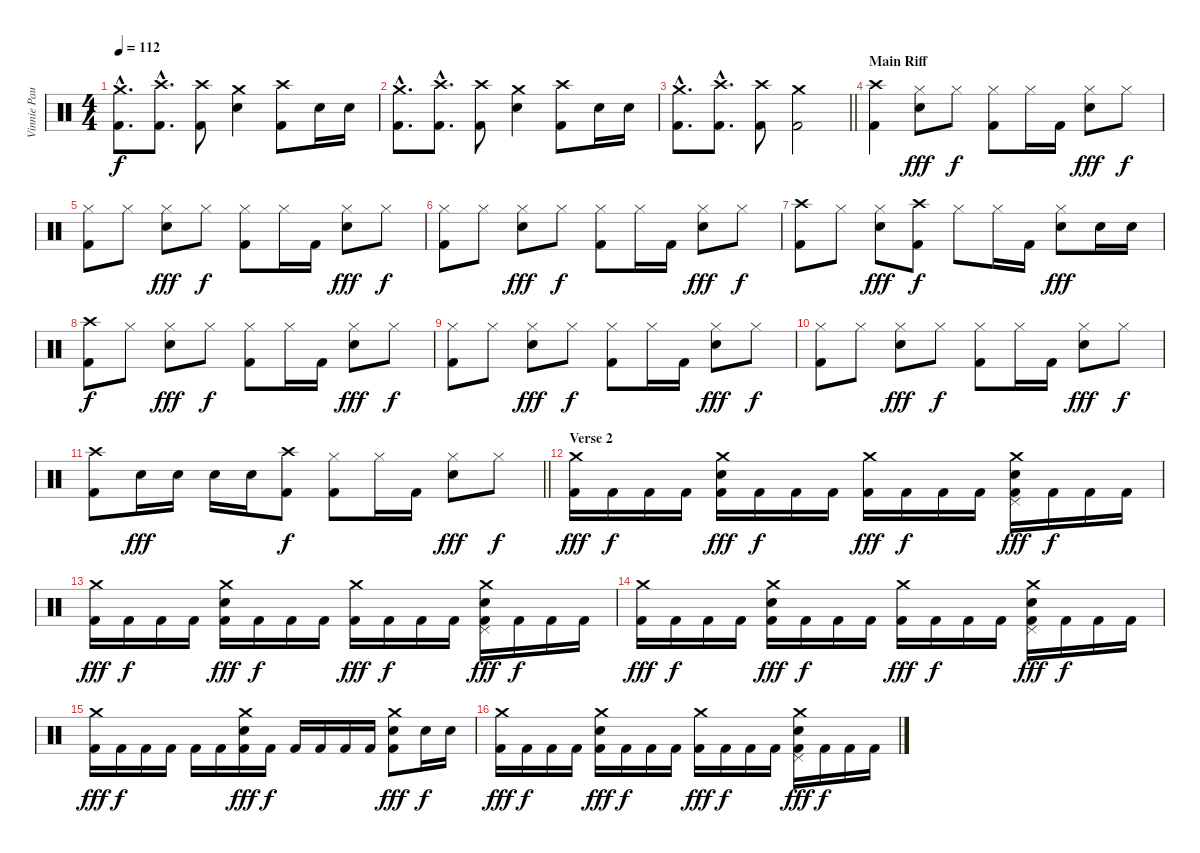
\track ("Vinnie Paul" "Vinnie Pau") {instrument percussion}
\staff {score}
\articulation defaults
\ts (4 4)
\tempo 112
\clef neutral
\ks c
("Crash medium (hit)"{hac} "Kick (hit) 2"{hac}).8{d dy f} ("Crash high (hit)"{hac} "Kick (hit) 2"{hac}).8{d} ("Crash high (hit)" "Kick (hit) 2").8 ("Crash medium (hit)" "Electric Snare (hit)").4 ("Crash high (hit)" "Kick (hit) 2").8 "Electric Snare (hit)".16 "Electric Snare (hit)".16 |
("Crash medium (hit)"{hac} "Kick (hit) 2"{hac}).8{d} ("Crash high (hit)"{hac} "Kick (hit) 2"{hac}).8{d} ("Crash high (hit)" "Kick (hit) 2").8 ("Crash medium (hit)" "Electric Snare (hit)").4 ("Crash high (hit)" "Kick (hit) 2").8 "Electric Snare (hit)".16 "Electric Snare (hit)".16 |
\barLineRight lightlight
("Crash medium (hit)"{hac} "Kick (hit) 2"{hac}).8{d} ("Crash high (hit)"{hac} "Kick (hit) 2"{hac}).8{d} ("Crash high (hit)" "Kick (hit) 2").8 ("Crash medium (hit)" "Kick (hit) 2").2 |
\section ("" "Main Riff")
("Crash high (hit)" "Kick (hit) 2").4 ("Hi-Hat (closed)" "Electric Snare (hit)").8{dy fff} "Hi-Hat (closed)".8{dy f} ("Hi-Hat (closed)" "Kick (hit) 2").8 "Hi-Hat (closed)".16 "Kick (hit) 2".16 ("Hi-Hat (closed)" "Electric Snare (hit)").8{dy fff} "Hi-Hat (closed)".8{dy f} |
("Hi-Hat (closed)" "Kick (hit) 2").8 "Hi-Hat (closed)".8 ("Hi-Hat (closed)" "Electric Snare (hit)").8{dy fff} "Hi-Hat (closed)".8{dy f} ("Hi-Hat (closed)" "Kick (hit) 2").8 "Hi-Hat (closed)".16 "Kick (hit) 2".16 ("Hi-Hat (closed)" "Electric Snare (hit)").8{dy fff} "Hi-Hat (closed)".8{dy f} |
("Hi-Hat (closed)" "Kick (hit) 2").8 "Hi-Hat (closed)".8 ("Hi-Hat (closed)" "Electric Snare (hit)").8{dy fff} "Hi-Hat (closed)".8{dy f} ("Hi-Hat (closed)" "Kick (hit) 2").8 "Hi-Hat (closed)".16 "Kick (hit) 2".16 ("Hi-Hat (closed)" "Electric Snare (hit)").8{dy fff} "Hi-Hat (closed)".8{dy f} |
("Crash high (hit)" "Kick (hit) 2").8 "Hi-Hat (closed)".8 ("Hi-Hat (closed)" "Electric Snare (hit)").8{dy fff} ("Crash high (hit)" "Kick (hit) 2").8{dy f} "Hi-Hat (closed)".8 "Hi-Hat (closed)".16 "Kick (hit) 2".16 ("Hi-Hat (closed)" "Electric Snare (hit)").8{dy fff} "Electric Snare (hit)".16 "Electric Snare (hit)".16 |
("Crash high (hit)" "Kick (hit) 2").8{dy f} "Hi-Hat (closed)".8 ("Hi-Hat (closed)" "Electric Snare (hit)").8{dy fff} "Hi-Hat (closed)".8{dy f} ("Hi-Hat (closed)" "Kick (hit) 2").8 "Hi-Hat (closed)".16 "Kick (hit) 2".16 ("Hi-Hat (closed)" "Electric Snare (hit)").8{dy fff} "Hi-Hat (closed)".8{dy f} |
("Hi-Hat (closed)" "Kick (hit) 2").8 "Hi-Hat (closed)".8 ("Hi-Hat (closed)" "Electric Snare (hit)").8{dy fff} "Hi-Hat (closed)".8{dy f} ("Hi-Hat (closed)" "Kick (hit) 2").8 "Hi-Hat (closed)".16 "Kick (hit) 2".16 ("Hi-Hat (closed)" "Electric Snare (hit)").8{dy fff} "Hi-Hat (closed)".8{dy f} |
("Hi-Hat (closed)" "Kick (hit) 2").8 "Hi-Hat (closed)".8 ("Hi-Hat (closed)" "Electric Snare (hit)").8{dy fff} "Hi-Hat (closed)".8{dy f} ("Hi-Hat (closed)" "Kick (hit) 2").8 "Hi-Hat (closed)".16 "Kick (hit) 2".16 ("Hi-Hat (closed)" "Electric Snare (hit)").8{dy fff} "Hi-Hat (closed)".8{dy f} |
\barLineRight lightlight
("Crash high (hit)" "Kick (hit) 2").8 "Electric Snare (hit)".16{dy fff} "Electric Snare (hit)".16 "Electric Snare (hit)".16 "Electric Snare (hit)".16 ("Crash high (hit)" "Kick (hit) 2").8{dy f} ("Hi-Hat (closed)" "Kick (hit) 2").8 "Hi-Hat (closed)".16 "Kick (hit) 2".16 ("Hi-Hat (closed)" "Electric Snare (hit)").8{dy fff} "Hi-Hat (closed)".8{dy f} |
\section ("" "Verse 2")
("Crash medium (hit)" "Kick (hit) 2").16{dy fff} "Kick (hit) 2".16{dy f} "Kick (hit) 2".16 "Kick (hit) 2".16 ("Crash medium (hit)" "Electric Snare (hit)" "Kick (hit) 2").16{dy fff} "Kick (hit) 2".16{dy f} "Kick (hit) 2".16 "Kick (hit) 2".16 ("Crash medium (hit)" "Kick (hit) 2").16{dy fff} "Kick (hit) 2".16{dy f} "Kick (hit) 2".16 "Kick (hit) 2".16 ("Crash medium (hit)" "Pedal Hi-Hat (hit)" "Electric Snare (hit)" "Kick (hit) 2").16{dy fff} "Kick (hit) 2".16{dy f} "Kick (hit) 2".16 "Kick (hit) 2".16 |
("Crash medium (hit)" "Kick (hit) 2").16{dy fff} "Kick (hit) 2".16{dy f} "Kick (hit) 2".16 "Kick (hit) 2".16 ("Crash medium (hit)" "Electric Snare (hit)" "Kick (hit) 2").16{dy fff} "Kick (hit) 2".16{dy f} "Kick (hit) 2".16 "Kick (hit) 2".16 ("Crash medium (hit)" "Kick (hit) 2").16{dy fff} "Kick (hit) 2".16{dy f} "Kick (hit) 2".16 "Kick (hit) 2".16 ("Crash medium (hit)" "Pedal Hi-Hat (hit)" "Electric Snare (hit)" "Kick (hit) 2").16{dy fff} "Kick (hit) 2".16{dy f} "Kick (hit) 2".16 "Kick (hit) 2".16 |
("Crash medium (hit)" "Kick (hit) 2").16{dy fff} "Kick (hit) 2".16{dy f} "Kick (hit) 2".16 "Kick (hit) 2".16 ("Crash medium (hit)" "Electric Snare (hit)" "Kick (hit) 2").16{dy fff} "Kick (hit) 2".16{dy f} "Kick (hit) 2".16 "Kick (hit) 2".16 ("Crash medium (hit)" "Kick (hit) 2").16{dy fff} "Kick (hit) 2".16{dy f} "Kick (hit) 2".16 "Kick (hit) 2".16 ("Crash medium (hit)" "Pedal Hi-Hat (hit)" "Electric Snare (hit)" "Kick (hit) 2").16{dy fff} "Kick (hit) 2".16{dy f} "Kick (hit) 2".16 "Kick (hit) 2".16 |
("Crash medium (hit)" "Kick (hit) 2").16{dy fff} "Kick (hit) 2".16{dy f} "Kick (hit) 2".16 "Kick (hit) 2".16 "Kick (hit) 2".16 "Kick (hit) 2".16 ("Crash medium (hit)" "Electric Snare (hit)" "Kick (hit) 2").16{dy fff} "Kick (hit) 2".16{dy f} "Kick (hit) 2".16 "Kick (hit) 2".16 "Kick (hit) 2".16 "Kick (hit) 2".16 ("Crash medium (hit)" "Electric Snare (hit)" "Kick (hit) 2").8{dy fff} "Electric Snare (hit)".16{dy f} "Electric Snare (hit)".16 |
("Crash medium (hit)" "Kick (hit) 2").16{dy fff} "Kick (hit) 2".16{dy f} "Kick (hit) 2".16 "Kick (hit) 2".16 ("Crash medium (hit)" "Electric Snare (hit)" "Kick (hit) 2").16{dy fff} "Kick (hit) 2".16{dy f} "Kick (hit) 2".16 "Kick (hit) 2".16 ("Crash medium (hit)" "Kick (hit) 2").16{dy fff} "Kick (hit) 2".16{dy f} "Kick (hit) 2".16 "Kick (hit) 2".16 ("Crash medium (hit)" "Pedal Hi-Hat (hit)" "Electric Snare (hit)" "Kick (hit) 2").16{dy fff} "Kick (hit) 2".16{dy f} "Kick (hit) 2".16 "Kick (hit) 2".16
